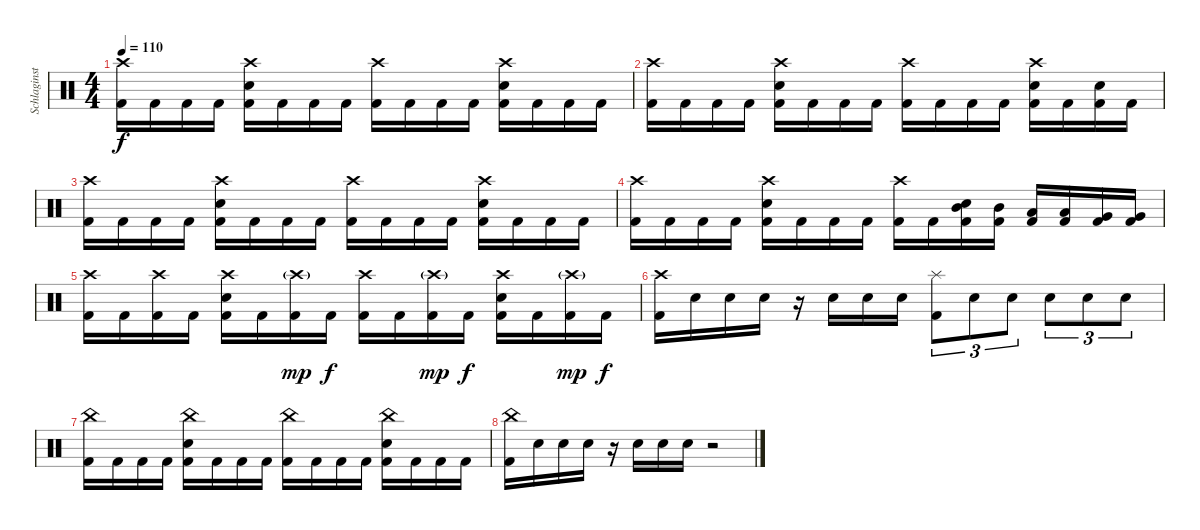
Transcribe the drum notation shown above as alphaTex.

\track ("Schlaginstrumente - Auswahl" "Schlaginst") {instrument percussion}
\staff {score}
\articulation defaults
\ts (4 4)
\tempo 110
\clef neutral
\ks c
("Crash high (hit)" "Kick (hit) 2").16{dy f} "Kick (hit) 2".16 "Kick (hit) 2".16 "Kick (hit) 2".16 ("Crash high (hit)" "Snare (hit) 2" "Kick (hit) 2").16 "Kick (hit) 2".16 "Kick (hit) 2".16 "Kick (hit) 2".16 ("Crash high (hit)" "Kick (hit) 2").16 "Kick (hit) 2".16 "Kick (hit) 2".16 "Kick (hit) 2".16 ("Crash high (hit)" "Snare (hit) 2" "Kick (hit) 2").16 "Kick (hit) 2".16 "Kick (hit) 2".16 "Kick (hit) 2".16 |
("Crash high (hit)" "Kick (hit) 2").16 "Kick (hit) 2".16 "Kick (hit) 2".16 "Kick (hit) 2".16 ("Crash high (hit)" "Snare (hit) 2" "Kick (hit) 2").16 "Kick (hit) 2".16 "Kick (hit) 2".16 "Kick (hit) 2".16 ("Crash high (hit)" "Kick (hit) 2").16 "Kick (hit) 2".16 "Kick (hit) 2".16 "Kick (hit) 2".16 ("Crash high (hit)" "Snare (hit) 2" "Kick (hit) 2").16 "Kick (hit) 2".16 ("Snare (hit) 2" "Kick (hit) 2").16 "Kick (hit) 2".16 |
("Crash high (hit)" "Kick (hit) 2").16 "Kick (hit) 2".16 "Kick (hit) 2".16 "Kick (hit) 2".16 ("Crash high (hit)" "Snare (hit) 2" "Kick (hit) 2").16 "Kick (hit) 2".16 "Kick (hit) 2".16 "Kick (hit) 2".16 ("Crash high (hit)" "Kick (hit) 2").16 "Kick (hit) 2".16 "Kick (hit) 2".16 "Kick (hit) 2".16 ("Crash high (hit)" "Snare (hit) 2" "Kick (hit) 2").16 "Kick (hit) 2".16 "Kick (hit) 2".16 "Kick (hit) 2".16 |
("Crash high (hit)" "Kick (hit) 2").16 "Kick (hit) 2".16 "Kick (hit) 2".16 "Kick (hit) 2".16 ("Crash high (hit)" "Snare (hit) 2" "Kick (hit) 2").16 "Kick (hit) 2".16 "Kick (hit) 2".16 "Kick (hit) 2".16 ("Crash high (hit)" "Kick (hit) 2").16 "Kick (hit) 2".16 ("Mid Tom (hit)" "Snare (hit) 2" "Kick (hit) 2").16 ("Mid Tom (hit)" "Kick (hit) 2").16 ("Low Tom (hit)" "Kick (hit) 2").16 ("Low Tom (hit)" "Kick (hit) 2").16 ("Very Low Tom (hit)" "Kick (hit) 2").16 ("Very Low Tom (hit)" "Kick (hit) 2").16 |
("Crash high (hit)" "Kick (hit) 2").16 "Kick (hit) 2".16 ("Crash high (hit)" "Kick (hit) 2").16 "Kick (hit) 2".16 ("Crash high (hit)" "Snare (hit) 2" "Kick (hit) 2").16 "Kick (hit) 2".16 ("Crash high (hit)"{g} "Kick (hit) 2").16{dy mp} "Kick (hit) 2".16{dy f} ("Crash high (hit)" "Kick (hit) 2").16 "Kick (hit) 2".16 ("Crash high (hit)"{g} "Kick (hit) 2").16{dy mp} "Kick (hit) 2".16{dy f} ("Crash high (hit)" "Snare (hit) 2" "Kick (hit) 2").16 "Kick (hit) 2".16 ("Crash high (hit)"{g} "Kick (hit) 2").16{dy mp} "Kick (hit) 2".16{dy f} |
("Crash high (hit)" "Kick (hit) 2").16 "Snare (hit) 2".16 "Snare (hit) 2".16 "Snare (hit) 2".16 r.16 "Snare (hit) 2".16 "Snare (hit) 2".16 "Snare (hit) 2".16 ("Splash (hit)" "Kick (hit) 2").8{tu (3 2)} "Snare (hit) 2".8{tu (3 2)} "Snare (hit) 2".8{tu (3 2)} "Snare (hit) 2".8{tu (3 2)} "Snare (hit) 2".8{tu (3 2)} "Snare (hit) 2".8{tu (3 2)} |
("China (hit)" "Kick (hit) 2").16 "Kick (hit) 2".16 "Kick (hit) 2".16 "Kick (hit) 2".16 ("China (hit)" "Snare (hit) 2" "Kick (hit) 2").16 "Kick (hit) 2".16 "Kick (hit) 2".16 "Kick (hit) 2".16 ("China (hit)" "Kick (hit) 2").16 "Kick (hit) 2".16 "Kick (hit) 2".16 "Kick (hit) 2".16 ("China (hit)" "Snare (hit) 2" "Kick (hit) 2").16 "Kick (hit) 2".16 "Kick (hit) 2".16 "Kick (hit) 2".16 |
("China (hit)" "Kick (hit) 2").16 "Snare (hit) 2".16 "Snare (hit) 2".16 "Snare (hit) 2".16 r.16 "Snare (hit) 2".16 "Snare (hit) 2".16 "Snare (hit) 2".16 r.2
